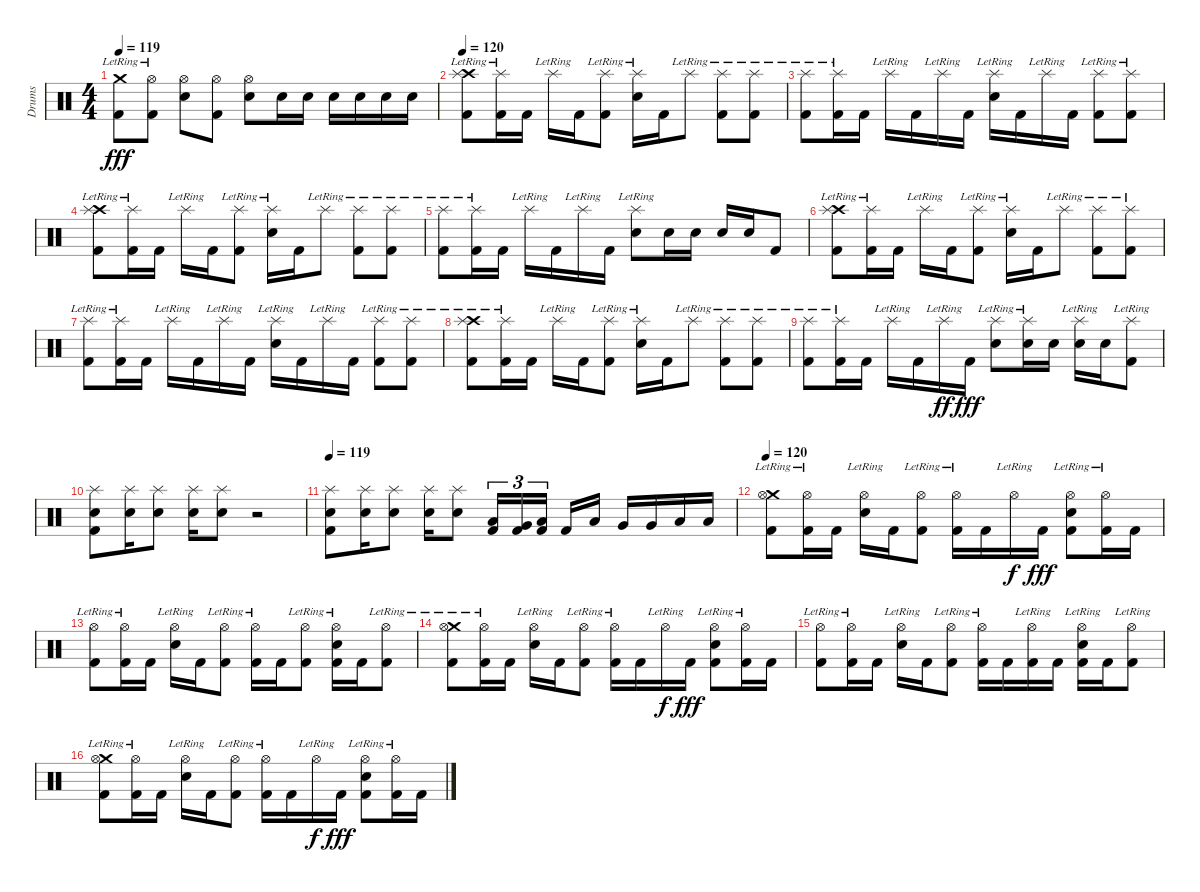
\track ("Drums" "Drums") {instrument percussion}
\staff {score}
\articulation defaults
\ts (4 4)
\tempo 119
\clef neutral
\ks c
("Crash medium (hit)"{lr} "Kick (hit) 2").8{dy fff} ("Hi-Hat (open)"{lr} "Kick (hit) 2").8 ("Hi-Hat (open)" "Electric Snare (hit)").8 ("Hi-Hat (open)" "Kick (hit) 2").8 ("Hi-Hat (open)" "Electric Snare (hit)").8 "Electric Snare (hit)".16 "Electric Snare (hit)".16 "Electric Snare (hit)".16 "Electric Snare (hit)".16 "Electric Snare (hit)".16 "Electric Snare (hit)".16 |
\tempo 120
("Crash high (hit)"{lr} "Splash (hit)"{lr} "Kick (hit) 2").8 ("Splash (hit)"{lr} "Kick (hit) 2").16 "Kick (hit) 2".16 "Splash (hit)"{lr}.16 "Kick (hit) 2".16 ("Splash (hit)"{lr} "Kick (hit) 2").8 ("Splash (hit)"{lr} "Electric Snare (hit)").16 "Kick (hit) 2".16 "Splash (hit)"{lr}.8 ("Splash (hit)"{lr} "Kick (hit) 2").8 ("Splash (hit)"{lr} "Kick (hit) 2").8 |
("Splash (hit)"{lr} "Kick (hit) 2").8 ("Splash (hit)"{lr} "Kick (hit) 2").16 "Kick (hit) 2".16 "Splash (hit)"{lr}.16 "Kick (hit) 2".16 "Splash (hit)"{lr}.16 "Kick (hit) 2".16 ("Splash (hit)"{lr} "Electric Snare (hit)").16 "Kick (hit) 2".16 "Splash (hit)"{lr}.16 "Kick (hit) 2".16 ("Splash (hit)"{lr} "Kick (hit) 2").8 ("Splash (hit)"{lr} "Kick (hit) 2").8 |
("Crash high (hit)"{lr} "Splash (hit)"{lr} "Kick (hit) 2").8 ("Splash (hit)"{lr} "Kick (hit) 2").16 "Kick (hit) 2".16 "Splash (hit)"{lr}.16 "Kick (hit) 2".16 ("Splash (hit)"{lr} "Kick (hit) 2").8 ("Splash (hit)"{lr} "Electric Snare (hit)").16 "Kick (hit) 2".16 "Splash (hit)"{lr}.8 ("Splash (hit)"{lr} "Kick (hit) 2").8 ("Splash (hit)"{lr} "Kick (hit) 2").8 |
("Splash (hit)"{lr} "Kick (hit) 2").8 ("Splash (hit)"{lr} "Kick (hit) 2").16 "Kick (hit) 2".16 "Splash (hit)"{lr}.16 "Kick (hit) 2".16 "Splash (hit)"{lr}.16 "Kick (hit) 2".16 ("Splash (hit)"{lr} "Electric Snare (hit)").8 "Electric Snare (hit)".16 "Electric Snare (hit)".16 "Electric Snare (hit)".16 "Electric Snare (hit)".16 "Kick (hit) 2".8 |
("Crash high (hit)"{lr} "Splash (hit)"{lr} "Kick (hit) 2").8 ("Splash (hit)"{lr} "Kick (hit) 2").16 "Kick (hit) 2".16 "Splash (hit)"{lr}.16 "Kick (hit) 2".16 ("Splash (hit)"{lr} "Kick (hit) 2").8 ("Splash (hit)"{lr} "Electric Snare (hit)").16 "Kick (hit) 2".16 "Splash (hit)"{lr}.8 ("Splash (hit)"{lr} "Kick (hit) 2").8 ("Splash (hit)"{lr} "Kick (hit) 2").8 |
("Splash (hit)"{lr} "Kick (hit) 2").8 ("Splash (hit)"{lr} "Kick (hit) 2").16 "Kick (hit) 2".16 "Splash (hit)"{lr}.16 "Kick (hit) 2".16 "Splash (hit)"{lr}.16 "Kick (hit) 2".16 ("Splash (hit)"{lr} "Electric Snare (hit)").16 "Kick (hit) 2".16 "Splash (hit)"{lr}.16 "Kick (hit) 2".16 ("Splash (hit)"{lr} "Kick (hit) 2").8 ("Splash (hit)"{lr} "Kick (hit) 2").8 |
("Crash high (hit)"{lr} "Splash (hit)"{lr} "Kick (hit) 2").8 ("Splash (hit)"{lr} "Kick (hit) 2").16 "Kick (hit) 2".16 "Splash (hit)"{lr}.16 "Kick (hit) 2".16 ("Splash (hit)"{lr} "Kick (hit) 2").8 ("Splash (hit)"{lr} "Electric Snare (hit)").16 "Kick (hit) 2".16 "Splash (hit)"{lr}.8 ("Splash (hit)"{lr} "Kick (hit) 2").8 ("Splash (hit)"{lr} "Kick (hit) 2").8 |
("Splash (hit)"{lr} "Kick (hit) 2").8 ("Splash (hit)"{lr} "Kick (hit) 2").16 "Kick (hit) 2".16 "Splash (hit)"{lr}.16 "Kick (hit) 2".16 "Splash (hit)"{lr}.16{dy ff} "Kick (hit) 2".16{dy fff} ("Splash (hit)"{lr} "Electric Snare (hit)").8 ("Splash (hit)"{lr} "Electric Snare (hit)").16 "Electric Snare (hit)".16 ("Splash (hit)"{lr} "Electric Snare (hit)").16 "Electric Snare (hit)".16 ("Splash (hit)"{lr} "Kick (hit) 2").8 |
("Splash (hit)" "Electric Snare (hit)" "Kick (hit) 2").8 ("Splash (hit)" "Electric Snare (hit)").16 ("Splash (hit)" "Electric Snare (hit)").8 ("Splash (hit)" "Electric Snare (hit)").16 ("Splash (hit)" "Electric Snare (hit)").8 r.2 |
\tempo 119
("Splash (hit)" "Electric Snare (hit)" "Kick (hit) 2").8 ("Splash (hit)" "Electric Snare (hit)").16 ("Splash (hit)" "Electric Snare (hit)").8 ("Splash (hit)" "Electric Snare (hit)").16 ("Splash (hit)" "Electric Snare (hit)").8 ("Low Tom (hit)" "Kick (hit) 2").16{tu (3 2)} ("Very Low Tom (hit)" "Kick (hit) 2").16{tu (3 2)} ("Low Floor Tom (hit)" "Kick (hit) 2").16{tu (3 2)} "Kick (hit) 2".16 "Low Tom (hit)".16 "Very Low Tom (hit)".16 "Very Low Tom (hit)".16 "Low Floor Tom (hit)".16 "Low Floor Tom (hit)".16 |
\tempo 120
("Crash medium (hit)"{lr} "Hi-Hat (open)"{lr} "Kick (hit) 2").8 ("Hi-Hat (open)"{lr} "Kick (hit) 2").16 "Kick (hit) 2".16 ("Hi-Hat (open)"{lr} "Electric Snare (hit)").16 "Kick (hit) 2".16 ("Hi-Hat (open)"{lr} "Kick (hit) 2").8 ("Hi-Hat (open)"{lr} "Kick (hit) 2").16 "Kick (hit) 2".16 "Hi-Hat (open)"{lr}.16{dy f} "Kick (hit) 2".16{dy fff} ("Hi-Hat (open)"{lr} "Electric Snare (hit)" "Kick (hit) 2").8 ("Hi-Hat (open)"{lr} "Kick (hit) 2").16 "Kick (hit) 2".16 |
("Hi-Hat (open)"{lr} "Kick (hit) 2").8 ("Hi-Hat (open)"{lr} "Kick (hit) 2").16 "Kick (hit) 2".16 ("Hi-Hat (open)"{lr} "Electric Snare (hit)").16 "Kick (hit) 2".16 ("Hi-Hat (open)"{lr} "Kick (hit) 2").8 ("Hi-Hat (open)"{lr} "Kick (hit) 2").16 "Kick (hit) 2".16 ("Hi-Hat (open)"{lr} "Kick (hit) 2").8 ("Hi-Hat (open)"{lr} "Electric Snare (hit)" "Kick (hit) 2").16 "Kick (hit) 2".16 ("Hi-Hat (open)"{lr} "Kick (hit) 2").8 |
("Crash medium (hit)"{lr} "Hi-Hat (open)"{lr} "Kick (hit) 2").8 ("Hi-Hat (open)"{lr} "Kick (hit) 2").16 "Kick (hit) 2".16 ("Hi-Hat (open)"{lr} "Electric Snare (hit)").16 "Kick (hit) 2".16 ("Hi-Hat (open)"{lr} "Kick (hit) 2").8 ("Hi-Hat (open)"{lr} "Kick (hit) 2").16 "Kick (hit) 2".16 "Hi-Hat (open)"{lr}.16{dy f} "Kick (hit) 2".16{dy fff} ("Hi-Hat (open)"{lr} "Electric Snare (hit)" "Kick (hit) 2").8 ("Hi-Hat (open)"{lr} "Kick (hit) 2").16 "Kick (hit) 2".16 |
("Hi-Hat (open)"{lr} "Kick (hit) 2").8 ("Hi-Hat (open)"{lr} "Kick (hit) 2").16 "Kick (hit) 2".16 ("Hi-Hat (open)"{lr} "Electric Snare (hit)").16 "Kick (hit) 2".16 ("Hi-Hat (open)"{lr} "Kick (hit) 2").8 ("Hi-Hat (open)"{lr} "Kick (hit) 2").16 "Kick (hit) 2".16 ("Hi-Hat (open)"{lr} "Kick (hit) 2").16 "Kick (hit) 2".16 ("Hi-Hat (open)"{lr} "Electric Snare (hit)" "Kick (hit) 2").16 "Kick (hit) 2".16 ("Hi-Hat (open)"{lr} "Kick (hit) 2").8 |
("Crash medium (hit)"{lr} "Hi-Hat (open)"{lr} "Kick (hit) 2").8 ("Hi-Hat (open)"{lr} "Kick (hit) 2").16 "Kick (hit) 2".16 ("Hi-Hat (open)"{lr} "Electric Snare (hit)").16 "Kick (hit) 2".16 ("Hi-Hat (open)"{lr} "Kick (hit) 2").8 ("Hi-Hat (open)"{lr} "Kick (hit) 2").16 "Kick (hit) 2".16 "Hi-Hat (open)"{lr}.16{dy f} "Kick (hit) 2".16{dy fff} ("Hi-Hat (open)"{lr} "Electric Snare (hit)" "Kick (hit) 2").8 ("Hi-Hat (open)"{lr} "Kick (hit) 2").16 "Kick (hit) 2".16
